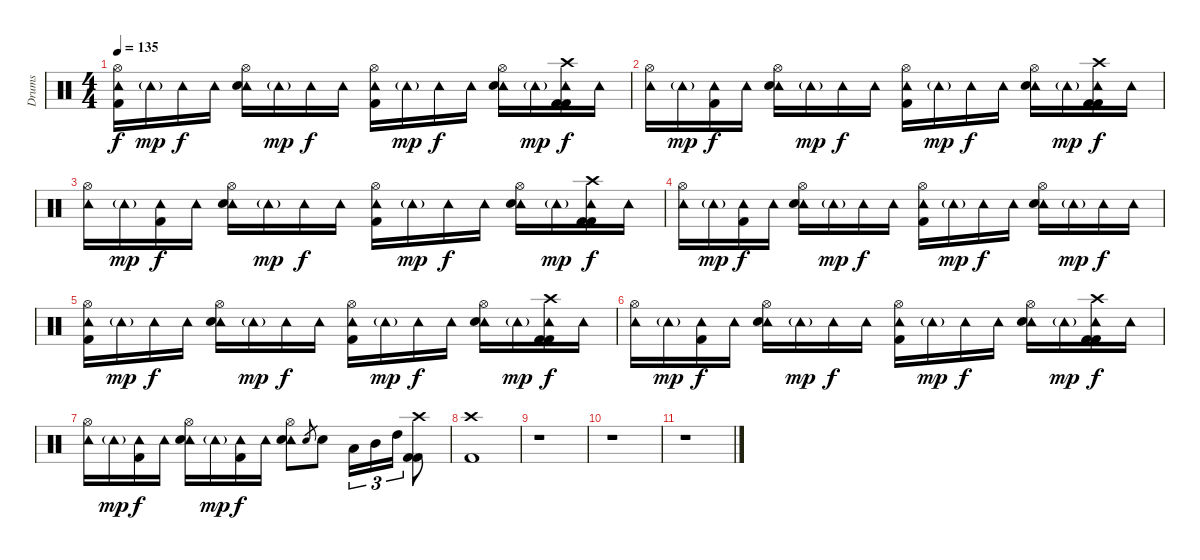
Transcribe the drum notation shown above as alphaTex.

\track ("Drums" "Drums") {instrument percussion}
\staff {score}
\articulation defaults
\ts (4 4)
\tempo 135
\clef neutral
\ks c
("Hi-Hat (open)" "Tambourine (hit)" "Kick (hit) 2").16{dy f} "Tambourine (hit)"{g}.16{dy mp} "Tambourine (hit)".16{dy f} "Tambourine (hit)".16 ("Hi-Hat (open)" "Tambourine (hit)" "Electric Snare (hit)").16 "Tambourine (hit)"{g}.16{dy mp} "Tambourine (hit)".16{dy f} "Tambourine (hit)".16 ("Hi-Hat (open)" "Tambourine (hit)" "Kick (hit) 2").16 "Tambourine (hit)"{g}.16{dy mp} "Tambourine (hit)".16{dy f} "Tambourine (hit)".16 ("Hi-Hat (open)" "Tambourine (hit)" "Electric Snare (hit)").16 "Tambourine (hit)"{g}.16{dy mp} ("Crash high (hit)" "Tambourine (hit)" "Kick (hit) 2" "Kick (hit) 2").16{dy f} "Tambourine (hit)".16 |
("Hi-Hat (open)" "Tambourine (hit)").16 "Tambourine (hit)"{g}.16{dy mp} ("Tambourine (hit)" "Kick (hit) 2").16{dy f} "Tambourine (hit)".16 ("Hi-Hat (open)" "Tambourine (hit)" "Electric Snare (hit)").16 "Tambourine (hit)"{g}.16{dy mp} "Tambourine (hit)".16{dy f} "Tambourine (hit)".16 ("Hi-Hat (open)" "Tambourine (hit)" "Kick (hit) 2").16 "Tambourine (hit)"{g}.16{dy mp} "Tambourine (hit)".16{dy f} "Tambourine (hit)".16 ("Hi-Hat (open)" "Tambourine (hit)" "Electric Snare (hit)").16 "Tambourine (hit)"{g}.16{dy mp} ("Crash high (hit)" "Tambourine (hit)" "Kick (hit) 2" "Kick (hit) 2").16{dy f} "Tambourine (hit)".16 |
("Hi-Hat (open)" "Tambourine (hit)").16 "Tambourine (hit)"{g}.16{dy mp} ("Tambourine (hit)" "Kick (hit) 2").16{dy f} "Tambourine (hit)".16 ("Hi-Hat (open)" "Tambourine (hit)" "Electric Snare (hit)").16 "Tambourine (hit)"{g}.16{dy mp} "Tambourine (hit)".16{dy f} "Tambourine (hit)".16 ("Hi-Hat (open)" "Tambourine (hit)" "Kick (hit) 2").16 "Tambourine (hit)"{g}.16{dy mp} "Tambourine (hit)".16{dy f} "Tambourine (hit)".16 ("Hi-Hat (open)" "Tambourine (hit)" "Electric Snare (hit)").16 "Tambourine (hit)"{g}.16{dy mp} ("Crash high (hit)" "Tambourine (hit)" "Kick (hit) 2" "Kick (hit) 2").16{dy f} "Tambourine (hit)".16 |
("Hi-Hat (open)" "Tambourine (hit)").16 "Tambourine (hit)"{g}.16{dy mp} ("Tambourine (hit)" "Kick (hit) 2").16{dy f} "Tambourine (hit)".16 ("Hi-Hat (open)" "Tambourine (hit)" "Electric Snare (hit)").16 "Tambourine (hit)"{g}.16{dy mp} "Tambourine (hit)".16{dy f} "Tambourine (hit)".16 ("Hi-Hat (open)" "Tambourine (hit)" "Kick (hit) 2").16 "Tambourine (hit)"{g}.16{dy mp} "Tambourine (hit)".16{dy f} "Tambourine (hit)".16 ("Hi-Hat (open)" "Tambourine (hit)" "Electric Snare (hit)").16 "Tambourine (hit)"{g}.16{dy mp} "Tambourine (hit)".16{dy f} "Tambourine (hit)".16 |
("Hi-Hat (open)" "Tambourine (hit)" "Kick (hit) 2").16 "Tambourine (hit)"{g}.16{dy mp} "Tambourine (hit)".16{dy f} "Tambourine (hit)".16 ("Hi-Hat (open)" "Tambourine (hit)" "Electric Snare (hit)").16 "Tambourine (hit)"{g}.16{dy mp} "Tambourine (hit)".16{dy f} "Tambourine (hit)".16 ("Hi-Hat (open)" "Tambourine (hit)" "Kick (hit) 2").16 "Tambourine (hit)"{g}.16{dy mp} "Tambourine (hit)".16{dy f} "Tambourine (hit)".16 ("Hi-Hat (open)" "Tambourine (hit)" "Electric Snare (hit)").16 "Tambourine (hit)"{g}.16{dy mp} ("Crash high (hit)" "Tambourine (hit)" "Kick (hit) 2" "Kick (hit) 2").16{dy f} "Tambourine (hit)".16 |
("Hi-Hat (open)" "Tambourine (hit)").16 "Tambourine (hit)"{g}.16{dy mp} ("Tambourine (hit)" "Kick (hit) 2").16{dy f} "Tambourine (hit)".16 ("Hi-Hat (open)" "Tambourine (hit)" "Electric Snare (hit)").16 "Tambourine (hit)"{g}.16{dy mp} "Tambourine (hit)".16{dy f} "Tambourine (hit)".16 ("Hi-Hat (open)" "Tambourine (hit)" "Kick (hit) 2").16 "Tambourine (hit)"{g}.16{dy mp} "Tambourine (hit)".16{dy f} "Tambourine (hit)".16 ("Hi-Hat (open)" "Tambourine (hit)" "Electric Snare (hit)").16 "Tambourine (hit)"{g}.16{dy mp} ("Crash high (hit)" "Tambourine (hit)" "Kick (hit) 2" "Kick (hit) 2").16{dy f} "Tambourine (hit)".16 |
("Hi-Hat (open)" "Tambourine (hit)").16 "Tambourine (hit)"{g}.16{dy mp} ("Tambourine (hit)" "Kick (hit) 2").16{dy f} "Tambourine (hit)".16 ("Hi-Hat (open)" "Tambourine (hit)" "Electric Snare (hit)").16 "Tambourine (hit)"{g}.16{dy mp} ("Tambourine (hit)" "Kick (hit) 2").16{dy f} "Tambourine (hit)".16 ("Hi-Hat (open)" "Tambourine (hit)" "Electric Snare (hit)").8 "Electric Snare (hit)".8{gr} "Electric Snare (hit)".8 "Low Tom (hit)".16{tu (3 2)} "Mid Tom (hit)".16{tu (3 2)} "High Tom (hit)".16{tu (3 2)} ("Crash high (hit)" "Kick (hit) 2" "Kick (hit) 2").8 |
("Crash high (hit)" "Kick (hit) 2").1 |
r.1 |
r.1 |
r.1
